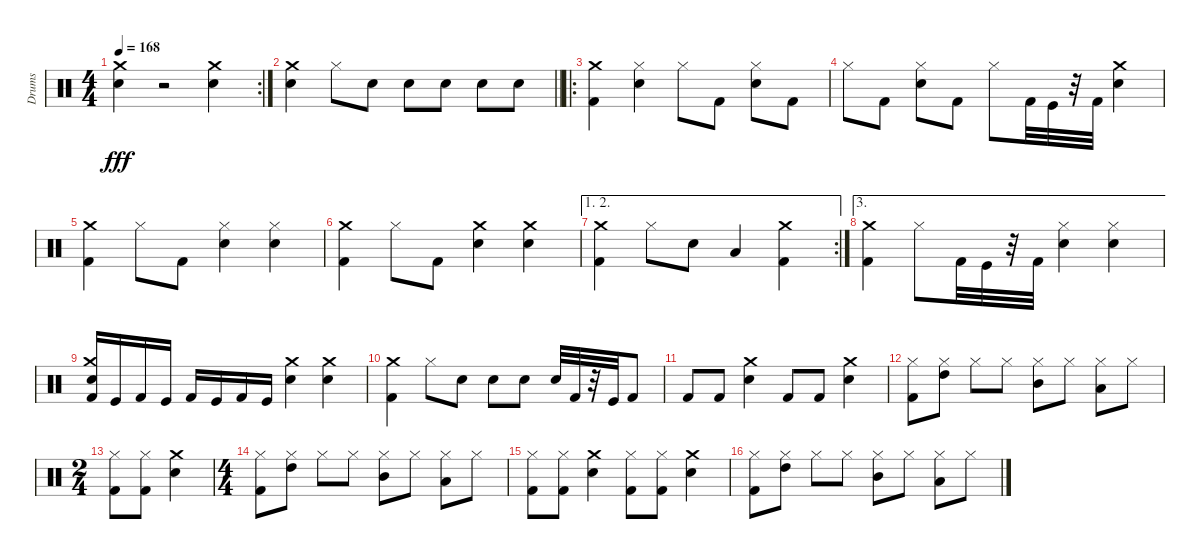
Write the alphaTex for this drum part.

\track ("Drums" "Drums") {instrument percussion}
\staff {score}
\articulation defaults
\rc 2
\ts (4 4)
\tempo 168
\clef neutral
\ks c
("Snare (hit) 2" "Crash medium (hit)").4{dy fff} r.2 ("Crash medium (hit)" "Snare (hit) 2").4 |
\barLineRight lightlight
("Snare (hit) 2" "Crash medium (hit)").4 "Hi-Hat (closed)".8 "Snare (hit) 2".8 "Snare (hit) 2".8 "Snare (hit) 2".8 "Snare (hit) 2".8 "Snare (hit) 2".8 |
\ro
("Kick (hit) 2" "Crash medium (hit)").4 ("Hi-Hat (closed)" "Snare (hit) 2").4 "Hi-Hat (closed)".8 "Kick (hit) 2".8 ("Snare (hit) 2" "Hi-Hat (closed)").8 "Kick (hit) 2".8 |
"Hi-Hat (closed)".8 "Kick (hit) 2".8 ("Snare (hit) 2" "Hi-Hat (closed)").8 "Kick (hit) 2".8 "Hi-Hat (closed)".8 "Kick (hit) 2".32 "Kick (hit)".32 r.32 "Kick (hit) 2".32 ("Crash medium (hit)" "Snare (hit) 2").4 |
("Kick (hit) 2" "Crash medium (hit)").4 "Hi-Hat (closed)".8 "Kick (hit) 2".8 ("Snare (hit) 2" "Hi-Hat (closed)").4 ("Hi-Hat (closed)" "Snare (hit) 2").4 |
("Kick (hit) 2" "Crash medium (hit)").4 "Hi-Hat (closed)".8 "Kick (hit) 2".8 ("Crash medium (hit)" "Snare (hit) 2").4 ("Snare (hit) 2" "Crash medium (hit)").4 |
\ae (1 2)
\rc 2
("Kick (hit) 2" "Crash medium (hit)").4 "Hi-Hat (closed)".8 "Snare (hit) 2".8 "Low Tom (hit)".4 ("Kick (hit) 2" "Crash medium (hit)").4 |
\ae 3
("Kick (hit) 2" "Crash medium (hit)").4 "Hi-Hat (closed)".8 "Kick (hit) 2".32 "Kick (hit)".32 r.32 "Kick (hit) 2".32 ("Snare (hit) 2" "Hi-Hat (closed)").4 ("Hi-Hat (closed)" "Snare (hit) 2").4 |
("Kick (hit) 2" "Snare (hit) 2" "Crash medium (hit)").16 "Kick (hit)".16 "Kick (hit) 2".16 "Kick (hit)".16 "Kick (hit) 2".16 "Kick (hit)".16 "Kick (hit) 2".16 "Kick (hit)".16 ("Crash medium (hit)" "Snare (hit) 2").4 ("Snare (hit) 2" "Crash medium (hit)").4 |
("Kick (hit) 2" "Crash medium (hit)").4 "Hi-Hat (closed)".8 "Snare (hit) 2".8 "Snare (hit) 2".8 "Snare (hit) 2".8 "Snare (hit) 2".32 "Kick (hit) 2".32 r.32 "Kick (hit)".32 "Kick (hit) 2".8 |
"Kick (hit) 2".8 "Kick (hit) 2".8 ("Snare (hit) 2" "Crash medium (hit)").4 "Kick (hit) 2".8 "Kick (hit) 2".8 ("Crash medium (hit)" "Snare (hit) 2").4 |
("Hi-Hat (closed)" "Kick (hit) 2").8 ("High Tom (hit)" "Hi-Hat (closed)").8{balance 16} "Hi-Hat (closed)".8{balance 8} "Hi-Hat (closed)".8 ("Mid Tom (hit)" "Hi-Hat (closed)").8 "Hi-Hat (closed)".8 ("Low Tom (hit)" "Hi-Hat (closed)").8{balance 0} "Hi-Hat (closed)".8{balance 8} |
\ts (2 4)
("Kick (hit) 2" "Hi-Hat (closed)").8 ("Kick (hit) 2" "Hi-Hat (closed)").8 ("Snare (hit) 2" "Crash medium (hit)").4 |
\ts (4 4)
("Hi-Hat (closed)" "Kick (hit) 2").8 ("High Tom (hit)" "Hi-Hat (closed)").8{balance 16} "Hi-Hat (closed)".8{balance 8} "Hi-Hat (closed)".8 ("Mid Tom (hit)" "Hi-Hat (closed)").8 "Hi-Hat (closed)".8 ("Hi-Hat (closed)" "Low Tom (hit)").8{balance 0} "Hi-Hat (closed)".8{balance 8} |
("Hi-Hat (closed)" "Kick (hit) 2").8 ("Hi-Hat (closed)" "Kick (hit) 2").8 ("Snare (hit) 2" "Crash medium (hit)").4 ("Kick (hit) 2" "Hi-Hat (closed)").8 ("Kick (hit) 2" "Hi-Hat (closed)").8 ("Crash medium (hit)" "Snare (hit) 2").4 |
("Hi-Hat (closed)" "Kick (hit) 2").8 ("High Tom (hit)" "Hi-Hat (closed)").8{balance 16} "Hi-Hat (closed)".8{balance 8} "Hi-Hat (closed)".8 ("Mid Tom (hit)" "Hi-Hat (closed)").8 "Hi-Hat (closed)".8 ("Low Tom (hit)" "Hi-Hat (closed)").8{balance 0} "Hi-Hat (closed)".8{balance 8}
